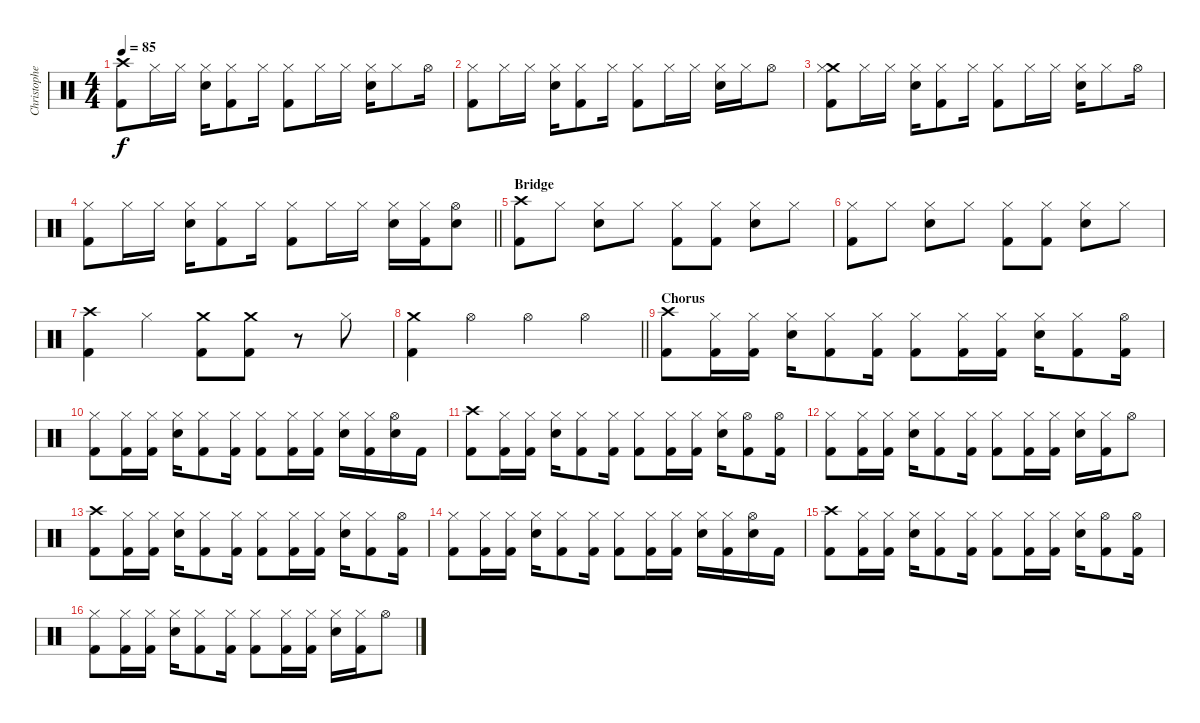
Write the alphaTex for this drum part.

\track ("Christopher" "Christophe") {instrument percussion}
\staff {score}
\articulation defaults
\ts (4 4)
\tempo 85
\clef neutral
\ks c
("Crash high (hit)" "Kick (hit) 2").8{dy f} "Hi-Hat (closed)".16 "Hi-Hat (closed)".16 ("Hi-Hat (closed)" "Snare (hit) 2").16 ("Hi-Hat (closed)" "Kick (hit) 2").8 "Hi-Hat (closed)".16 ("Hi-Hat (closed)" "Kick (hit) 2").8 "Hi-Hat (closed)".16 "Hi-Hat (closed)".16 ("Hi-Hat (closed)" "Snare (hit) 2").16 "Hi-Hat (closed)".8 "Hi-Hat (open)".16 |
("Hi-Hat (closed)" "Kick (hit) 2").8 "Hi-Hat (closed)".16 "Hi-Hat (closed)".16 ("Hi-Hat (closed)" "Snare (hit) 2").16 ("Hi-Hat (closed)" "Kick (hit) 2").8 "Hi-Hat (closed)".16 ("Hi-Hat (closed)" "Kick (hit) 2").8 "Hi-Hat (closed)".16 "Hi-Hat (closed)".16 ("Hi-Hat (closed)" "Snare (hit) 2").16 "Hi-Hat (closed)".16 "Hi-Hat (open)".8 |
("Crash medium (hit)" "Hi-Hat (closed)" "Kick (hit) 2").8 "Hi-Hat (closed)".16 "Hi-Hat (closed)".16 ("Hi-Hat (closed)" "Snare (hit) 2").16 ("Hi-Hat (closed)" "Kick (hit) 2").8 "Hi-Hat (closed)".16 ("Hi-Hat (closed)" "Kick (hit) 2").8 "Hi-Hat (closed)".16 "Hi-Hat (closed)".16 ("Hi-Hat (closed)" "Snare (hit) 2").16 "Hi-Hat (closed)".8 "Hi-Hat (open)".16 |
\barLineRight lightlight
("Hi-Hat (closed)" "Kick (hit) 2").8 "Hi-Hat (closed)".16 "Hi-Hat (closed)".16 ("Hi-Hat (closed)" "Snare (hit) 2").16 ("Hi-Hat (closed)" "Kick (hit) 2").8 "Hi-Hat (closed)".16 ("Hi-Hat (closed)" "Kick (hit) 2").8 "Hi-Hat (closed)".16 "Hi-Hat (closed)".16 ("Hi-Hat (closed)" "Snare (hit) 2").16 ("Hi-Hat (closed)" "Kick (hit) 2").16 ("Hi-Hat (open)" "Snare (hit) 2").8 |
\section ("" "Bridge")
("Crash high (hit)" "Kick (hit) 2").8 "Hi-Hat (closed)".8 ("Hi-Hat (closed)" "Snare (hit) 2").8 "Hi-Hat (closed)".8 ("Hi-Hat (closed)" "Kick (hit) 2").8 ("Hi-Hat (closed)" "Kick (hit) 2").8 ("Hi-Hat (closed)" "Snare (hit) 2").8 "Hi-Hat (closed)".8 |
("Hi-Hat (closed)" "Kick (hit) 2").8 "Hi-Hat (closed)".8 ("Hi-Hat (closed)" "Snare (hit) 2").8 "Hi-Hat (closed)".8 ("Hi-Hat (closed)" "Kick (hit) 2").8 ("Hi-Hat (closed)" "Kick (hit) 2").8 ("Hi-Hat (closed)" "Snare (hit) 2").8 "Hi-Hat (closed)".8 |
("Crash high (hit)" "Kick (hit) 2").4 "Hi-Hat (closed)".4 ("Crash medium (hit)" "Kick (hit) 2").8 ("Crash medium (hit)" "Kick (hit) 2").8 r.8 "Hi-Hat (closed)".8 |
\barLineRight lightlight
("Crash medium (hit)" "Kick (hit) 2").4 "Hi-Hat (open)".4 "Hi-Hat (open)".4 "Hi-Hat (open)".4 |
\section ("" "Chorus")
("Crash high (hit)" "Kick (hit) 2").8 ("Hi-Hat (closed)" "Kick (hit) 2").16 ("Hi-Hat (closed)" "Kick (hit) 2").16 ("Hi-Hat (closed)" "Snare (hit) 2").16 ("Hi-Hat (closed)" "Kick (hit) 2").8 ("Hi-Hat (closed)" "Kick (hit) 2").16 ("Hi-Hat (closed)" "Kick (hit) 2").8 ("Hi-Hat (closed)" "Kick (hit) 2").16 ("Hi-Hat (closed)" "Kick (hit) 2").16 ("Hi-Hat (closed)" "Snare (hit) 2").16 ("Hi-Hat (closed)" "Kick (hit) 2").8 ("Hi-Hat (open)" "Kick (hit) 2").16 |
("Hi-Hat (closed)" "Kick (hit) 2").8 ("Hi-Hat (closed)" "Kick (hit) 2").16 ("Hi-Hat (closed)" "Kick (hit) 2").16 ("Hi-Hat (closed)" "Snare (hit) 2").16 ("Hi-Hat (closed)" "Kick (hit) 2").8 ("Hi-Hat (closed)" "Kick (hit) 2").16 ("Hi-Hat (closed)" "Kick (hit) 2").8 ("Hi-Hat (closed)" "Kick (hit) 2").16 ("Hi-Hat (closed)" "Kick (hit) 2").16 ("Hi-Hat (closed)" "Snare (hit) 2").16 ("Hi-Hat (closed)" "Kick (hit) 2").16 ("Hi-Hat (open)" "Snare (hit) 2").16 "Kick (hit) 2".16 |
("Crash high (hit)" "Kick (hit) 2").8 ("Hi-Hat (closed)" "Kick (hit) 2").16 ("Hi-Hat (closed)" "Kick (hit) 2").16 ("Hi-Hat (closed)" "Snare (hit) 2").16 ("Hi-Hat (closed)" "Kick (hit) 2").8 ("Hi-Hat (closed)" "Kick (hit) 2").16 ("Hi-Hat (closed)" "Kick (hit) 2").8 ("Hi-Hat (closed)" "Kick (hit) 2").16 ("Hi-Hat (closed)" "Kick (hit) 2").16 ("Hi-Hat (closed)" "Snare (hit) 2").16 ("Hi-Hat (open)" "Kick (hit) 2").8 ("Hi-Hat (open)" "Kick (hit) 2").16 |
("Hi-Hat (closed)" "Kick (hit) 2").8 ("Hi-Hat (closed)" "Kick (hit) 2").16 ("Hi-Hat (closed)" "Kick (hit) 2").16 ("Hi-Hat (closed)" "Snare (hit) 2").16 ("Hi-Hat (closed)" "Kick (hit) 2").8 ("Hi-Hat (closed)" "Kick (hit) 2").16 ("Hi-Hat (closed)" "Kick (hit) 2").8 ("Hi-Hat (closed)" "Kick (hit) 2").16 ("Hi-Hat (closed)" "Kick (hit) 2").16 ("Hi-Hat (closed)" "Snare (hit) 2").16 ("Hi-Hat (closed)" "Kick (hit) 2").16 "Hi-Hat (open)".8 |
("Crash high (hit)" "Kick (hit) 2").8 ("Hi-Hat (closed)" "Kick (hit) 2").16 ("Hi-Hat (closed)" "Kick (hit) 2").16 ("Hi-Hat (closed)" "Snare (hit) 2").16 ("Hi-Hat (closed)" "Kick (hit) 2").8 ("Hi-Hat (closed)" "Kick (hit) 2").16 ("Hi-Hat (closed)" "Kick (hit) 2").8 ("Hi-Hat (closed)" "Kick (hit) 2").16 ("Hi-Hat (closed)" "Kick (hit) 2").16 ("Hi-Hat (closed)" "Snare (hit) 2").16 ("Hi-Hat (closed)" "Kick (hit) 2").8 ("Hi-Hat (open)" "Kick (hit) 2").16 |
("Hi-Hat (closed)" "Kick (hit) 2").8 ("Hi-Hat (closed)" "Kick (hit) 2").16 ("Hi-Hat (closed)" "Kick (hit) 2").16 ("Hi-Hat (closed)" "Snare (hit) 2").16 ("Hi-Hat (closed)" "Kick (hit) 2").8 ("Hi-Hat (closed)" "Kick (hit) 2").16 ("Hi-Hat (closed)" "Kick (hit) 2").8 ("Hi-Hat (closed)" "Kick (hit) 2").16 ("Hi-Hat (closed)" "Kick (hit) 2").16 ("Hi-Hat (closed)" "Snare (hit) 2").16 ("Hi-Hat (closed)" "Kick (hit) 2").16 ("Hi-Hat (open)" "Snare (hit) 2").16 "Kick (hit) 2".16 |
("Crash high (hit)" "Kick (hit) 2").8 ("Hi-Hat (closed)" "Kick (hit) 2").16 ("Hi-Hat (closed)" "Kick (hit) 2").16 ("Hi-Hat (closed)" "Snare (hit) 2").16 ("Hi-Hat (closed)" "Kick (hit) 2").8 ("Hi-Hat (closed)" "Kick (hit) 2").16 ("Hi-Hat (closed)" "Kick (hit) 2").8 ("Hi-Hat (closed)" "Kick (hit) 2").16 ("Hi-Hat (closed)" "Kick (hit) 2").16 ("Hi-Hat (closed)" "Snare (hit) 2").16 ("Hi-Hat (open)" "Kick (hit) 2").8 ("Hi-Hat (open)" "Kick (hit) 2").16 |
("Hi-Hat (closed)" "Kick (hit) 2").8 ("Hi-Hat (closed)" "Kick (hit) 2").16 ("Hi-Hat (closed)" "Kick (hit) 2").16 ("Hi-Hat (closed)" "Snare (hit) 2").16 ("Hi-Hat (closed)" "Kick (hit) 2").8 ("Hi-Hat (closed)" "Kick (hit) 2").16 ("Hi-Hat (closed)" "Kick (hit) 2").8 ("Hi-Hat (closed)" "Kick (hit) 2").16 ("Hi-Hat (closed)" "Kick (hit) 2").16 ("Hi-Hat (closed)" "Snare (hit) 2").16 ("Hi-Hat (closed)" "Kick (hit) 2").16 "Hi-Hat (open)".8
